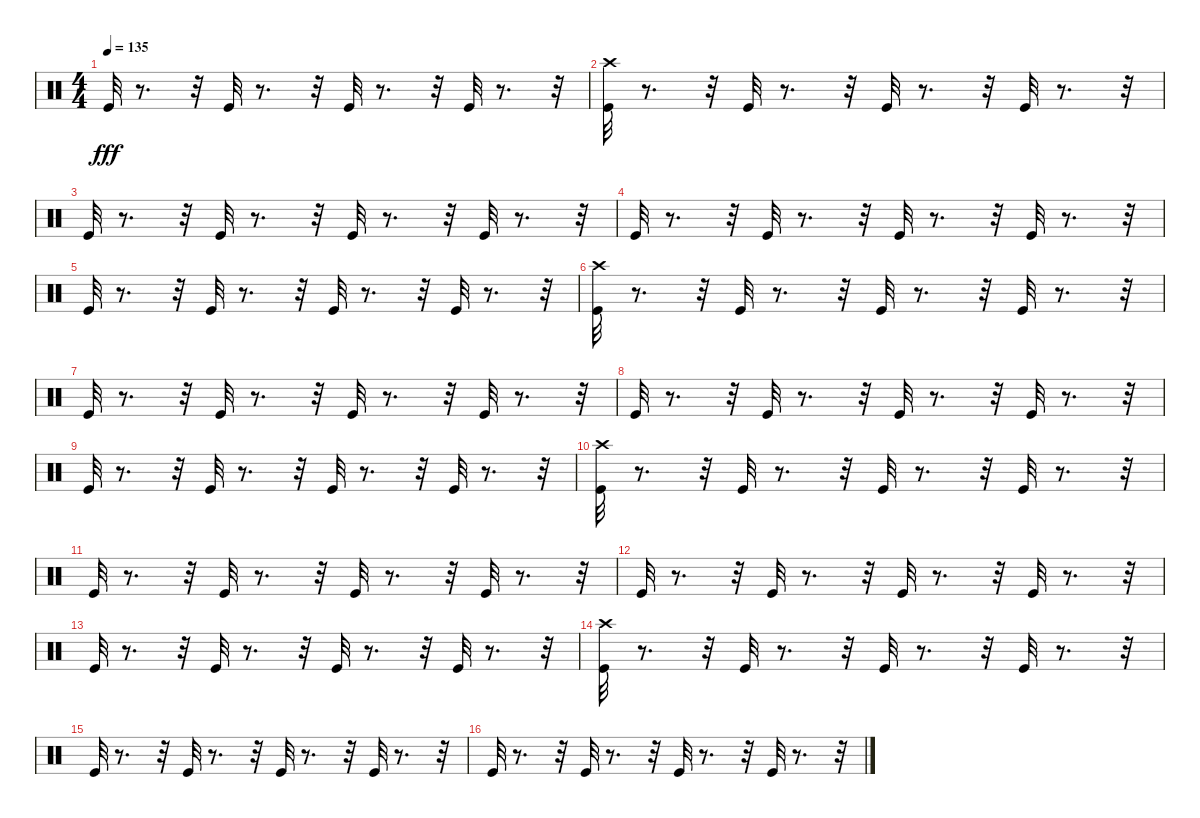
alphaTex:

\track "" {instrument percussion}
\staff {score}
\articulation defaults
\ts (4 4)
\tempo 135
\clef neutral
\ks c "Kick (hit)".32{dy fff}
r.8{d} r.32 "Kick (hit)".32 r.8{d} r.32 "Kick (hit)".32 r.8{d} r.32 "Kick (hit)".32 r.8{d} r.32 |
("Kick (hit)" "Crash high (hit)").32 r.8{d} r.32 "Kick (hit)".32 r.8{d} r.32 "Kick (hit)".32 r.8{d} r.32 "Kick (hit)".32 r.8{d} r.32 |
"Kick (hit)".32 r.8{d} r.32 "Kick (hit)".32 r.8{d} r.32 "Kick (hit)".32 r.8{d} r.32 "Kick (hit)".32 r.8{d} r.32 |
"Kick (hit)".32 r.8{d} r.32 "Kick (hit)".32 r.8{d} r.32 "Kick (hit)".32 r.8{d} r.32 "Kick (hit)".32 r.8{d} r.32 |
"Kick (hit)".32 r.8{d} r.32 "Kick (hit)".32 r.8{d} r.32 "Kick (hit)".32 r.8{d} r.32 "Kick (hit)".32 r.8{d} r.32 |
("Kick (hit)" "Crash high (hit)").32 r.8{d} r.32 "Kick (hit)".32 r.8{d} r.32 "Kick (hit)".32 r.8{d} r.32 "Kick (hit)".32 r.8{d} r.32 |
"Kick (hit)".32 r.8{d} r.32 "Kick (hit)".32 r.8{d} r.32 "Kick (hit)".32 r.8{d} r.32 "Kick (hit)".32 r.8{d} r.32 |
"Kick (hit)".32 r.8{d} r.32 "Kick (hit)".32 r.8{d} r.32 "Kick (hit)".32 r.8{d} r.32 "Kick (hit)".32 r.8{d} r.32 |
"Kick (hit)".32 r.8{d} r.32 "Kick (hit)".32 r.8{d} r.32 "Kick (hit)".32 r.8{d} r.32 "Kick (hit)".32 r.8{d} r.32 |
("Kick (hit)" "Crash high (hit)").32 r.8{d} r.32 "Kick (hit)".32 r.8{d} r.32 "Kick (hit)".32 r.8{d} r.32 "Kick (hit)".32 r.8{d} r.32 |
"Kick (hit)".32 r.8{d} r.32 "Kick (hit)".32 r.8{d} r.32 "Kick (hit)".32 r.8{d} r.32 "Kick (hit)".32 r.8{d} r.32 |
"Kick (hit)".32 r.8{d} r.32 "Kick (hit)".32 r.8{d} r.32 "Kick (hit)".32 r.8{d} r.32 "Kick (hit)".32 r.8{d} r.32 |
"Kick (hit)".32 r.8{d} r.32 "Kick (hit)".32 r.8{d} r.32 "Kick (hit)".32 r.8{d} r.32 "Kick (hit)".32 r.8{d} r.32 |
("Kick (hit)" "Crash high (hit)").32 r.8{d} r.32 "Kick (hit)".32 r.8{d} r.32 "Kick (hit)".32 r.8{d} r.32 "Kick (hit)".32 r.8{d} r.32 |
"Kick (hit)".32 r.8{d} r.32 "Kick (hit)".32 r.8{d} r.32 "Kick (hit)".32 r.8{d} r.32 "Kick (hit)".32 r.8{d} r.32 |
"Kick (hit)".32 r.8{d} r.32 "Kick (hit)".32 r.8{d} r.32 "Kick (hit)".32 r.8{d} r.32 "Kick (hit)".32 r.8{d} r.32
